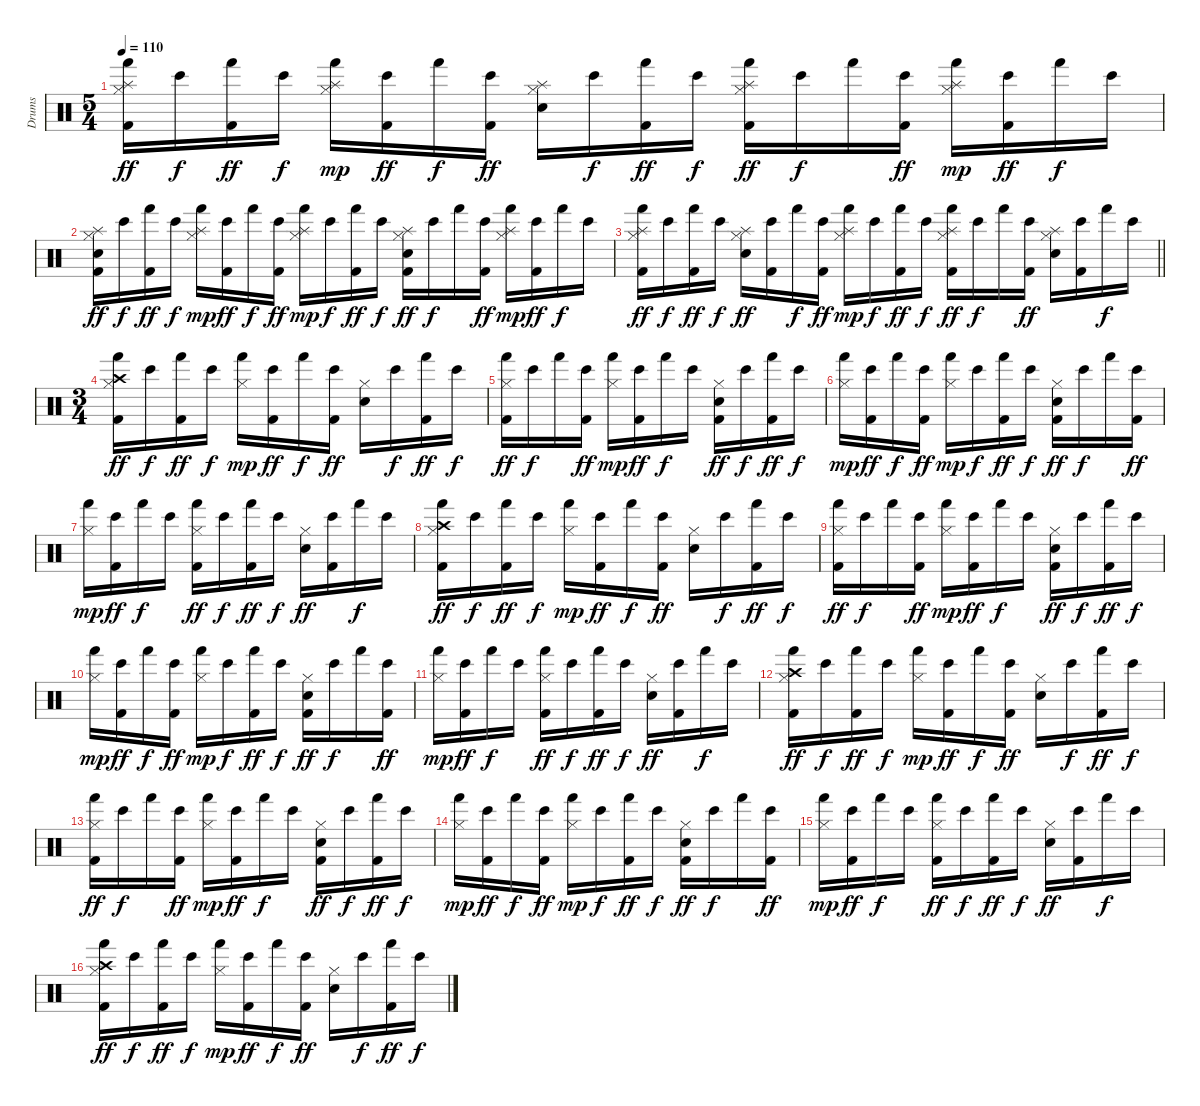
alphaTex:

\track ("Drums" "Drums") {instrument percussion}
\staff {score}
\articulation defaults
\ts (5 4)
\tempo 110
\clef neutral
\ks c
("Splash (hit)" "Hi-Hat (closed)" "Hand (hit)" "Kick (hit) 2").16{dy ff} "Bongo High (hit)".16{dy f} ("Hand (hit)" "Kick (hit) 2").16{dy ff} "Bongo High (hit)".16{dy f} ("Splash (hit)" "Hi-Hat (closed)" "Hand (hit)").16{dy mp} ("Bongo High (hit)" "Kick (hit) 2").16{dy ff} "Hand (hit)".16{dy f} ("Bongo High (hit)" "Kick (hit) 2").16{dy ff} ("Splash (hit)" "Hi-Hat (closed)" "Snare (hit) 2").16 "Bongo High (hit)".16{dy f} ("Hand (hit)" "Kick (hit) 2").16{dy ff} "Bongo High (hit)".16{dy f} ("Splash (hit)" "Hi-Hat (closed)" "Hand (hit)" "Kick (hit) 2").16{dy ff} "Bongo High (hit)".16{dy f} "Hand (hit)".16 ("Bongo High (hit)" "Kick (hit) 2").16{dy ff} ("Splash (hit)" "Hi-Hat (closed)" "Hand (hit)").16{dy mp} ("Bongo High (hit)" "Kick (hit) 2").16{dy ff} "Hand (hit)".16{dy f} "Bongo High (hit)".16 |
("Splash (hit)" "Hi-Hat (closed)" "Snare (hit) 2" "Kick (hit) 2").16{dy ff} "Bongo High (hit)".16{dy f} ("Hand (hit)" "Kick (hit) 2").16{dy ff} "Bongo High (hit)".16{dy f} ("Splash (hit)" "Hi-Hat (closed)" "Hand (hit)").16{dy mp} ("Bongo High (hit)" "Kick (hit) 2").16{dy ff} "Hand (hit)".16{dy f} ("Bongo High (hit)" "Kick (hit) 2").16{dy ff} ("Splash (hit)" "Hi-Hat (closed)" "Hand (hit)").16{dy mp} "Bongo High (hit)".16{dy f} ("Hand (hit)" "Kick (hit) 2").16{dy ff} "Bongo High (hit)".16{dy f} ("Splash (hit)" "Hi-Hat (closed)" "Snare (hit) 2" "Kick (hit) 2").16{dy ff} "Bongo High (hit)".16{dy f} "Hand (hit)".16 ("Bongo High (hit)" "Kick (hit) 2").16{dy ff} ("Splash (hit)" "Hi-Hat (closed)" "Hand (hit)").16{dy mp} ("Bongo High (hit)" "Kick (hit) 2").16{dy ff} "Hand (hit)".16{dy f} "Bongo High (hit)".16 |
\barLineRight lightlight
("Splash (hit)" "Hi-Hat (closed)" "Hand (hit)" "Kick (hit) 2").16{dy ff} "Bongo High (hit)".16{dy f} ("Hand (hit)" "Kick (hit) 2").16{dy ff} "Bongo High (hit)".16{dy f} ("Splash (hit)" "Hi-Hat (closed)" "Snare (hit) 2").16{dy ff} ("Bongo High (hit)" "Kick (hit) 2").16 "Hand (hit)".16{dy f} ("Bongo High (hit)" "Kick (hit) 2").16{dy ff} ("Splash (hit)" "Hi-Hat (closed)" "Hand (hit)").16{dy mp} "Bongo High (hit)".16{dy f} ("Hand (hit)" "Kick (hit) 2").16{dy ff} "Bongo High (hit)".16{dy f} ("Splash (hit)" "Hi-Hat (closed)" "Hand (hit)" "Kick (hit) 2").16{dy ff} "Bongo High (hit)".16{dy f} "Hand (hit)".16 ("Bongo High (hit)" "Kick (hit) 2").16{dy ff} ("Splash (hit)" "Hi-Hat (closed)" "Snare (hit) 2").16 ("Bongo High (hit)" "Kick (hit) 2").16 "Hand (hit)".16{dy f} "Bongo High (hit)".16 |
\ts (3 4)
\section ("" "")
("Crash high (hit)" "Hi-Hat (closed)" "Hand (hit)" "Kick (hit) 2").16{dy ff} "Bongo High (hit)".16{dy f} ("Hand (hit)" "Kick (hit) 2").16{dy ff} "Bongo High (hit)".16{dy f} ("Hi-Hat (closed)" "Hand (hit)").16{dy mp} ("Bongo High (hit)" "Kick (hit) 2").16{dy ff} "Hand (hit)".16{dy f} ("Bongo High (hit)" "Kick (hit) 2").16{dy ff} ("Hi-Hat (closed)" "Snare (hit) 2").16 "Bongo High (hit)".16{dy f} ("Hand (hit)" "Kick (hit) 2").16{dy ff} "Bongo High (hit)".16{dy f} |
("Hi-Hat (closed)" "Hand (hit)" "Kick (hit) 2").16{dy ff} "Bongo High (hit)".16{dy f} "Hand (hit)".16 ("Bongo High (hit)" "Kick (hit) 2").16{dy ff} ("Hi-Hat (closed)" "Hand (hit)").16{dy mp} ("Bongo High (hit)" "Kick (hit) 2").16{dy ff} "Hand (hit)".16{dy f} "Bongo High (hit)".16 ("Hi-Hat (closed)" "Snare (hit) 2" "Kick (hit) 2").16{dy ff} "Bongo High (hit)".16{dy f} ("Hand (hit)" "Kick (hit) 2").16{dy ff} "Bongo High (hit)".16{dy f} |
("Hi-Hat (closed)" "Hand (hit)").16{dy mp} ("Bongo High (hit)" "Kick (hit) 2").16{dy ff} "Hand (hit)".16{dy f} ("Bongo High (hit)" "Kick (hit) 2").16{dy ff} ("Hi-Hat (closed)" "Hand (hit)").16{dy mp} "Bongo High (hit)".16{dy f} ("Hand (hit)" "Kick (hit) 2").16{dy ff} "Bongo High (hit)".16{dy f} ("Hi-Hat (closed)" "Snare (hit) 2" "Kick (hit) 2").16{dy ff} "Bongo High (hit)".16{dy f} "Hand (hit)".16 ("Bongo High (hit)" "Kick (hit) 2").16{dy ff} |
("Hi-Hat (closed)" "Hand (hit)").16{dy mp} ("Bongo High (hit)" "Kick (hit) 2").16{dy ff} "Hand (hit)".16{dy f} "Bongo High (hit)".16 ("Hi-Hat (closed)" "Hand (hit)" "Kick (hit) 2").16{dy ff} "Bongo High (hit)".16{dy f} ("Hand (hit)" "Kick (hit) 2").16{dy ff} "Bongo High (hit)".16{dy f} ("Hi-Hat (closed)" "Snare (hit) 2").16{dy ff} ("Bongo High (hit)" "Kick (hit) 2").16 "Hand (hit)".16{dy f} "Bongo High (hit)".16 |
("Crash high (hit)" "Hi-Hat (closed)" "Hand (hit)" "Kick (hit) 2").16{dy ff} "Bongo High (hit)".16{dy f} ("Hand (hit)" "Kick (hit) 2").16{dy ff} "Bongo High (hit)".16{dy f} ("Hi-Hat (closed)" "Hand (hit)").16{dy mp} ("Bongo High (hit)" "Kick (hit) 2").16{dy ff} "Hand (hit)".16{dy f} ("Bongo High (hit)" "Kick (hit) 2").16{dy ff} ("Hi-Hat (closed)" "Snare (hit) 2").16 "Bongo High (hit)".16{dy f} ("Hand (hit)" "Kick (hit) 2").16{dy ff} "Bongo High (hit)".16{dy f} |
("Hi-Hat (closed)" "Hand (hit)" "Kick (hit) 2").16{dy ff} "Bongo High (hit)".16{dy f} "Hand (hit)".16 ("Bongo High (hit)" "Kick (hit) 2").16{dy ff} ("Hi-Hat (closed)" "Hand (hit)").16{dy mp} ("Bongo High (hit)" "Kick (hit) 2").16{dy ff} "Hand (hit)".16{dy f} "Bongo High (hit)".16 ("Hi-Hat (closed)" "Snare (hit) 2" "Kick (hit) 2").16{dy ff} "Bongo High (hit)".16{dy f} ("Hand (hit)" "Kick (hit) 2").16{dy ff} "Bongo High (hit)".16{dy f} |
("Hi-Hat (closed)" "Hand (hit)").16{dy mp} ("Bongo High (hit)" "Kick (hit) 2").16{dy ff} "Hand (hit)".16{dy f} ("Bongo High (hit)" "Kick (hit) 2").16{dy ff} ("Hi-Hat (closed)" "Hand (hit)").16{dy mp} "Bongo High (hit)".16{dy f} ("Hand (hit)" "Kick (hit) 2").16{dy ff} "Bongo High (hit)".16{dy f} ("Hi-Hat (closed)" "Snare (hit) 2" "Kick (hit) 2").16{dy ff} "Bongo High (hit)".16{dy f} "Hand (hit)".16 ("Bongo High (hit)" "Kick (hit) 2").16{dy ff} |
("Hi-Hat (closed)" "Hand (hit)").16{dy mp} ("Bongo High (hit)" "Kick (hit) 2").16{dy ff} "Hand (hit)".16{dy f} "Bongo High (hit)".16 ("Hi-Hat (closed)" "Hand (hit)" "Kick (hit) 2").16{dy ff} "Bongo High (hit)".16{dy f} ("Hand (hit)" "Kick (hit) 2").16{dy ff} "Bongo High (hit)".16{dy f} ("Hi-Hat (closed)" "Snare (hit) 2").16{dy ff} ("Bongo High (hit)" "Kick (hit) 2").16 "Hand (hit)".16{dy f} "Bongo High (hit)".16 |
("Crash high (hit)" "Hi-Hat (closed)" "Hand (hit)" "Kick (hit) 2").16{dy ff} "Bongo High (hit)".16{dy f} ("Hand (hit)" "Kick (hit) 2").16{dy ff} "Bongo High (hit)".16{dy f} ("Hi-Hat (closed)" "Hand (hit)").16{dy mp} ("Bongo High (hit)" "Kick (hit) 2").16{dy ff} "Hand (hit)".16{dy f} ("Bongo High (hit)" "Kick (hit) 2").16{dy ff} ("Hi-Hat (closed)" "Snare (hit) 2").16 "Bongo High (hit)".16{dy f} ("Hand (hit)" "Kick (hit) 2").16{dy ff} "Bongo High (hit)".16{dy f} |
("Hi-Hat (closed)" "Hand (hit)" "Kick (hit) 2").16{dy ff} "Bongo High (hit)".16{dy f} "Hand (hit)".16 ("Bongo High (hit)" "Kick (hit) 2").16{dy ff} ("Hi-Hat (closed)" "Hand (hit)").16{dy mp} ("Bongo High (hit)" "Kick (hit) 2").16{dy ff} "Hand (hit)".16{dy f} "Bongo High (hit)".16 ("Hi-Hat (closed)" "Snare (hit) 2" "Kick (hit) 2").16{dy ff} "Bongo High (hit)".16{dy f} ("Hand (hit)" "Kick (hit) 2").16{dy ff} "Bongo High (hit)".16{dy f} |
("Hi-Hat (closed)" "Hand (hit)").16{dy mp} ("Bongo High (hit)" "Kick (hit) 2").16{dy ff} "Hand (hit)".16{dy f} ("Bongo High (hit)" "Kick (hit) 2").16{dy ff} ("Hi-Hat (closed)" "Hand (hit)").16{dy mp} "Bongo High (hit)".16{dy f} ("Hand (hit)" "Kick (hit) 2").16{dy ff} "Bongo High (hit)".16{dy f} ("Hi-Hat (closed)" "Snare (hit) 2" "Kick (hit) 2").16{dy ff} "Bongo High (hit)".16{dy f} "Hand (hit)".16 ("Bongo High (hit)" "Kick (hit) 2").16{dy ff} |
("Hi-Hat (closed)" "Hand (hit)").16{dy mp} ("Bongo High (hit)" "Kick (hit) 2").16{dy ff} "Hand (hit)".16{dy f} "Bongo High (hit)".16 ("Hi-Hat (closed)" "Hand (hit)" "Kick (hit) 2").16{dy ff} "Bongo High (hit)".16{dy f} ("Hand (hit)" "Kick (hit) 2").16{dy ff} "Bongo High (hit)".16{dy f} ("Hi-Hat (closed)" "Snare (hit) 2").16{dy ff} ("Bongo High (hit)" "Kick (hit) 2").16 "Hand (hit)".16{dy f} "Bongo High (hit)".16 |
("Crash high (hit)" "Hi-Hat (closed)" "Hand (hit)" "Kick (hit) 2").16{dy ff} "Bongo High (hit)".16{dy f} ("Hand (hit)" "Kick (hit) 2").16{dy ff} "Bongo High (hit)".16{dy f} ("Hi-Hat (closed)" "Hand (hit)").16{dy mp} ("Bongo High (hit)" "Kick (hit) 2").16{dy ff} "Hand (hit)".16{dy f} ("Bongo High (hit)" "Kick (hit) 2").16{dy ff} ("Hi-Hat (closed)" "Snare (hit) 2").16 "Bongo High (hit)".16{dy f} ("Hand (hit)" "Kick (hit) 2").16{dy ff} "Bongo High (hit)".16{dy f}
